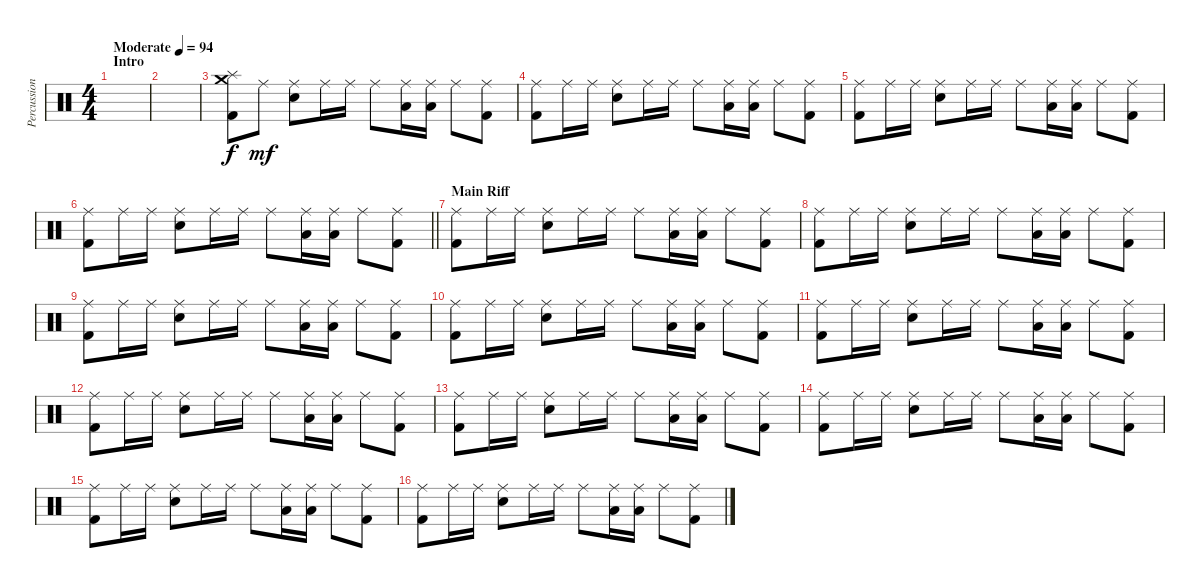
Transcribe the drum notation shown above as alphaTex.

\track ("Percussions" "Percussion") {instrument percussion}
\staff {score}
\articulation defaults
\ts (4 4)
\section ("" "Intro")
\tempo (94 "Moderate")
\clef neutral
\ks c
|
|
("Splash (hit)" "Crash medium (hit)" "Kick (hit) 2").8 "Ride (middle)".8{dy mf} ("Electric Snare (hit)" "Ride (middle)").8 "Ride (middle)".16 "Ride (middle)".16 "Ride (middle)".8 ("Low Tom (hit)" "Ride (middle)").16 ("Low Floor Tom (hit)" "Ride (middle)").16 "Ride (middle)".8 ("Kick (hit) 2" "Ride (middle)").8 |
("Kick (hit) 2" "Ride (middle)").8 "Ride (middle)".16 "Ride (middle)".16 ("Electric Snare (hit)" "Ride (middle)").8 "Ride (middle)".16 "Ride (middle)".16 "Ride (middle)".8 ("Low Tom (hit)" "Ride (middle)").16 ("Low Floor Tom (hit)" "Ride (middle)").16 "Ride (middle)".8 ("Kick (hit) 2" "Ride (middle)").8 |
("Kick (hit) 2" "Ride (middle)").8 "Ride (middle)".16 "Ride (middle)".16 ("Electric Snare (hit)" "Ride (middle)").8 "Ride (middle)".16 "Ride (middle)".16 "Ride (middle)".8 ("Low Tom (hit)" "Ride (middle)").16 ("Low Floor Tom (hit)" "Ride (middle)").16 "Ride (middle)".8 ("Kick (hit) 2" "Ride (middle)").8 |
\barLineRight lightlight
("Kick (hit) 2" "Ride (middle)").8 "Ride (middle)".16 "Ride (middle)".16 ("Electric Snare (hit)" "Ride (middle)").8 "Ride (middle)".16 "Ride (middle)".16 "Ride (middle)".8 ("Low Tom (hit)" "Ride (middle)").16 ("Low Floor Tom (hit)" "Ride (middle)").16 "Ride (middle)".8 ("Kick (hit) 2" "Ride (middle)").8 |
\section ("" "Main Riff")
("Kick (hit) 2" "Ride (middle)").8 "Ride (middle)".16 "Ride (middle)".16 ("Electric Snare (hit)" "Ride (middle)").8 "Ride (middle)".16 "Ride (middle)".16 "Ride (middle)".8 ("Low Tom (hit)" "Ride (middle)").16 ("Low Floor Tom (hit)" "Ride (middle)").16 "Ride (middle)".8 ("Kick (hit) 2" "Ride (middle)").8 |
("Kick (hit) 2" "Ride (middle)").8 "Ride (middle)".16 "Ride (middle)".16 ("Electric Snare (hit)" "Ride (middle)").8 "Ride (middle)".16 "Ride (middle)".16 "Ride (middle)".8 ("Low Tom (hit)" "Ride (middle)").16 ("Low Floor Tom (hit)" "Ride (middle)").16 "Ride (middle)".8 ("Kick (hit) 2" "Ride (middle)").8 |
("Kick (hit) 2" "Ride (middle)").8 "Ride (middle)".16 "Ride (middle)".16 ("Electric Snare (hit)" "Ride (middle)").8 "Ride (middle)".16 "Ride (middle)".16 "Ride (middle)".8 ("Low Tom (hit)" "Ride (middle)").16 ("Low Floor Tom (hit)" "Ride (middle)").16 "Ride (middle)".8 ("Kick (hit) 2" "Ride (middle)").8 |
("Kick (hit) 2" "Ride (middle)").8 "Ride (middle)".16 "Ride (middle)".16 ("Electric Snare (hit)" "Ride (middle)").8 "Ride (middle)".16 "Ride (middle)".16 "Ride (middle)".8 ("Low Tom (hit)" "Ride (middle)").16 ("Low Floor Tom (hit)" "Ride (middle)").16 "Ride (middle)".8 ("Kick (hit) 2" "Ride (middle)").8 |
("Kick (hit) 2" "Ride (middle)").8 "Ride (middle)".16 "Ride (middle)".16 ("Electric Snare (hit)" "Ride (middle)").8 "Ride (middle)".16 "Ride (middle)".16 "Ride (middle)".8 ("Low Tom (hit)" "Ride (middle)").16 ("Low Floor Tom (hit)" "Ride (middle)").16 "Ride (middle)".8 ("Kick (hit) 2" "Ride (middle)").8 |
("Kick (hit) 2" "Ride (middle)").8 "Ride (middle)".16 "Ride (middle)".16 ("Electric Snare (hit)" "Ride (middle)").8 "Ride (middle)".16 "Ride (middle)".16 "Ride (middle)".8 ("Low Tom (hit)" "Ride (middle)").16 ("Low Floor Tom (hit)" "Ride (middle)").16 "Ride (middle)".8 ("Kick (hit) 2" "Ride (middle)").8 |
("Kick (hit) 2" "Ride (middle)").8 "Ride (middle)".16 "Ride (middle)".16 ("Electric Snare (hit)" "Ride (middle)").8 "Ride (middle)".16 "Ride (middle)".16 "Ride (middle)".8 ("Low Tom (hit)" "Ride (middle)").16 ("Low Floor Tom (hit)" "Ride (middle)").16 "Ride (middle)".8 ("Kick (hit) 2" "Ride (middle)").8 |
("Kick (hit) 2" "Ride (middle)").8 "Ride (middle)".16 "Ride (middle)".16 ("Electric Snare (hit)" "Ride (middle)").8 "Ride (middle)".16 "Ride (middle)".16 "Ride (middle)".8 ("Low Tom (hit)" "Ride (middle)").16 ("Low Floor Tom (hit)" "Ride (middle)").16 "Ride (middle)".8 ("Kick (hit) 2" "Ride (middle)").8 |
("Kick (hit) 2" "Ride (middle)").8 "Ride (middle)".16 "Ride (middle)".16 ("Electric Snare (hit)" "Ride (middle)").8 "Ride (middle)".16 "Ride (middle)".16 "Ride (middle)".8 ("Low Tom (hit)" "Ride (middle)").16 ("Low Floor Tom (hit)" "Ride (middle)").16 "Ride (middle)".8 ("Kick (hit) 2" "Ride (middle)").8 |
("Kick (hit) 2" "Ride (middle)").8 "Ride (middle)".16 "Ride (middle)".16 ("Electric Snare (hit)" "Ride (middle)").8 "Ride (middle)".16 "Ride (middle)".16 "Ride (middle)".8 ("Low Tom (hit)" "Ride (middle)").16 ("Low Floor Tom (hit)" "Ride (middle)").16 "Ride (middle)".8 ("Kick (hit) 2" "Ride (middle)").8
